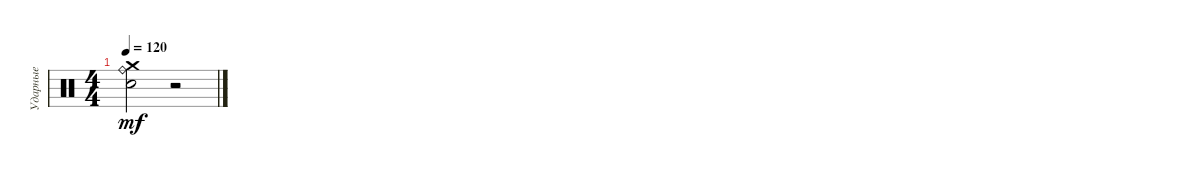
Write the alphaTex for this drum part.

\track ("Ударные" "Ударные") {instrument percussion}
\staff {score}
\articulation defaults
\ts (4 4)
\tempo 120
\clef neutral
\ks c
("Crash medium (hit)" "Electric Snare (hit)" "Ride (bell)").2{dy mf} r.2
